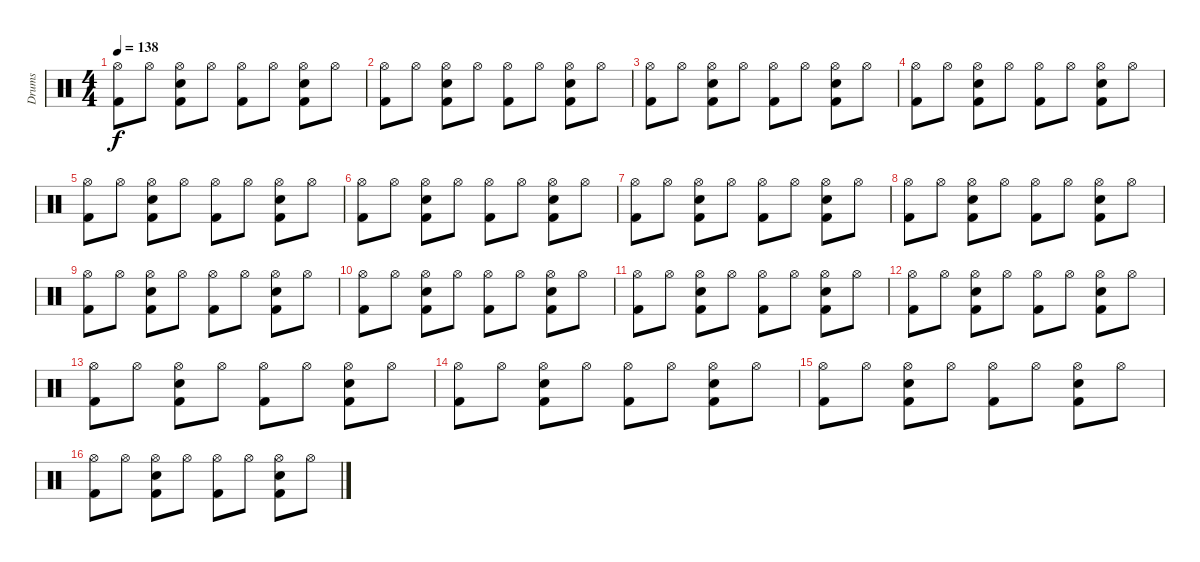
\track ("Drums" "Drums") {instrument percussion}
\staff {score}
\articulation defaults
\ts (4 4)
\tempo 138
\clef neutral
\ks c
("Hi-Hat (open)" "Kick (hit) 2").8{dy f} "Hi-Hat (open)".8 ("Electric Snare (hit)" "Hi-Hat (open)" "Kick (hit) 2").8 "Hi-Hat (open)".8 ("Hi-Hat (open)" "Kick (hit) 2").8 "Hi-Hat (open)".8 ("Electric Snare (hit)" "Hi-Hat (open)" "Kick (hit) 2").8 "Hi-Hat (open)".8 |
("Hi-Hat (open)" "Kick (hit) 2").8 "Hi-Hat (open)".8 ("Electric Snare (hit)" "Hi-Hat (open)" "Kick (hit) 2").8 "Hi-Hat (open)".8 ("Hi-Hat (open)" "Kick (hit) 2").8 "Hi-Hat (open)".8 ("Electric Snare (hit)" "Hi-Hat (open)" "Kick (hit) 2").8 "Hi-Hat (open)".8 |
("Hi-Hat (open)" "Kick (hit) 2").8 "Hi-Hat (open)".8 ("Electric Snare (hit)" "Hi-Hat (open)" "Kick (hit) 2").8 "Hi-Hat (open)".8 ("Hi-Hat (open)" "Kick (hit) 2").8 "Hi-Hat (open)".8 ("Electric Snare (hit)" "Hi-Hat (open)" "Kick (hit) 2").8 "Hi-Hat (open)".8 |
("Hi-Hat (open)" "Kick (hit) 2").8 "Hi-Hat (open)".8 ("Electric Snare (hit)" "Hi-Hat (open)" "Kick (hit) 2").8 "Hi-Hat (open)".8 ("Hi-Hat (open)" "Kick (hit) 2").8 "Hi-Hat (open)".8 ("Electric Snare (hit)" "Hi-Hat (open)" "Kick (hit) 2").8 "Hi-Hat (open)".8 |
("Hi-Hat (open)" "Kick (hit) 2").8 "Hi-Hat (open)".8 ("Electric Snare (hit)" "Hi-Hat (open)" "Kick (hit) 2").8 "Hi-Hat (open)".8 ("Hi-Hat (open)" "Kick (hit) 2").8 "Hi-Hat (open)".8 ("Electric Snare (hit)" "Hi-Hat (open)" "Kick (hit) 2").8 "Hi-Hat (open)".8 |
("Hi-Hat (open)" "Kick (hit) 2").8 "Hi-Hat (open)".8 ("Electric Snare (hit)" "Hi-Hat (open)" "Kick (hit) 2").8 "Hi-Hat (open)".8 ("Hi-Hat (open)" "Kick (hit) 2").8 "Hi-Hat (open)".8 ("Electric Snare (hit)" "Hi-Hat (open)" "Kick (hit) 2").8 "Hi-Hat (open)".8 |
("Hi-Hat (open)" "Kick (hit) 2").8 "Hi-Hat (open)".8 ("Electric Snare (hit)" "Hi-Hat (open)" "Kick (hit) 2").8 "Hi-Hat (open)".8 ("Hi-Hat (open)" "Kick (hit) 2").8 "Hi-Hat (open)".8 ("Electric Snare (hit)" "Hi-Hat (open)" "Kick (hit) 2").8 "Hi-Hat (open)".8 |
("Hi-Hat (open)" "Kick (hit) 2").8 "Hi-Hat (open)".8 ("Electric Snare (hit)" "Hi-Hat (open)" "Kick (hit) 2").8 "Hi-Hat (open)".8 ("Hi-Hat (open)" "Kick (hit) 2").8 "Hi-Hat (open)".8 ("Electric Snare (hit)" "Hi-Hat (open)" "Kick (hit) 2").8 "Hi-Hat (open)".8 |
("Hi-Hat (open)" "Kick (hit) 2").8 "Hi-Hat (open)".8 ("Electric Snare (hit)" "Hi-Hat (open)" "Kick (hit) 2").8 "Hi-Hat (open)".8 ("Hi-Hat (open)" "Kick (hit) 2").8 "Hi-Hat (open)".8 ("Electric Snare (hit)" "Hi-Hat (open)" "Kick (hit) 2").8 "Hi-Hat (open)".8 |
("Hi-Hat (open)" "Kick (hit) 2").8 "Hi-Hat (open)".8 ("Electric Snare (hit)" "Hi-Hat (open)" "Kick (hit) 2").8 "Hi-Hat (open)".8 ("Hi-Hat (open)" "Kick (hit) 2").8 "Hi-Hat (open)".8 ("Electric Snare (hit)" "Hi-Hat (open)" "Kick (hit) 2").8 "Hi-Hat (open)".8 |
("Hi-Hat (open)" "Kick (hit) 2").8 "Hi-Hat (open)".8 ("Electric Snare (hit)" "Hi-Hat (open)" "Kick (hit) 2").8 "Hi-Hat (open)".8 ("Hi-Hat (open)" "Kick (hit) 2").8 "Hi-Hat (open)".8 ("Electric Snare (hit)" "Hi-Hat (open)" "Kick (hit) 2").8 "Hi-Hat (open)".8 |
("Hi-Hat (open)" "Kick (hit) 2").8 "Hi-Hat (open)".8 ("Electric Snare (hit)" "Hi-Hat (open)" "Kick (hit) 2").8 "Hi-Hat (open)".8 ("Hi-Hat (open)" "Kick (hit) 2").8 "Hi-Hat (open)".8 ("Electric Snare (hit)" "Hi-Hat (open)" "Kick (hit) 2").8 "Hi-Hat (open)".8 |
("Hi-Hat (open)" "Kick (hit) 2").8 "Hi-Hat (open)".8 ("Electric Snare (hit)" "Hi-Hat (open)" "Kick (hit) 2").8 "Hi-Hat (open)".8 ("Hi-Hat (open)" "Kick (hit) 2").8 "Hi-Hat (open)".8 ("Electric Snare (hit)" "Hi-Hat (open)" "Kick (hit) 2").8 "Hi-Hat (open)".8 |
("Hi-Hat (open)" "Kick (hit) 2").8 "Hi-Hat (open)".8 ("Electric Snare (hit)" "Hi-Hat (open)" "Kick (hit) 2").8 "Hi-Hat (open)".8 ("Hi-Hat (open)" "Kick (hit) 2").8 "Hi-Hat (open)".8 ("Electric Snare (hit)" "Hi-Hat (open)" "Kick (hit) 2").8 "Hi-Hat (open)".8 |
("Hi-Hat (open)" "Kick (hit) 2").8 "Hi-Hat (open)".8 ("Electric Snare (hit)" "Hi-Hat (open)" "Kick (hit) 2").8 "Hi-Hat (open)".8 ("Hi-Hat (open)" "Kick (hit) 2").8 "Hi-Hat (open)".8 ("Electric Snare (hit)" "Hi-Hat (open)" "Kick (hit) 2").8 "Hi-Hat (open)".8 |
("Hi-Hat (open)" "Kick (hit) 2").8 "Hi-Hat (open)".8 ("Electric Snare (hit)" "Hi-Hat (open)" "Kick (hit) 2").8 "Hi-Hat (open)".8 ("Hi-Hat (open)" "Kick (hit) 2").8 "Hi-Hat (open)".8 ("Electric Snare (hit)" "Hi-Hat (open)" "Kick (hit) 2").8 "Hi-Hat (open)".8
